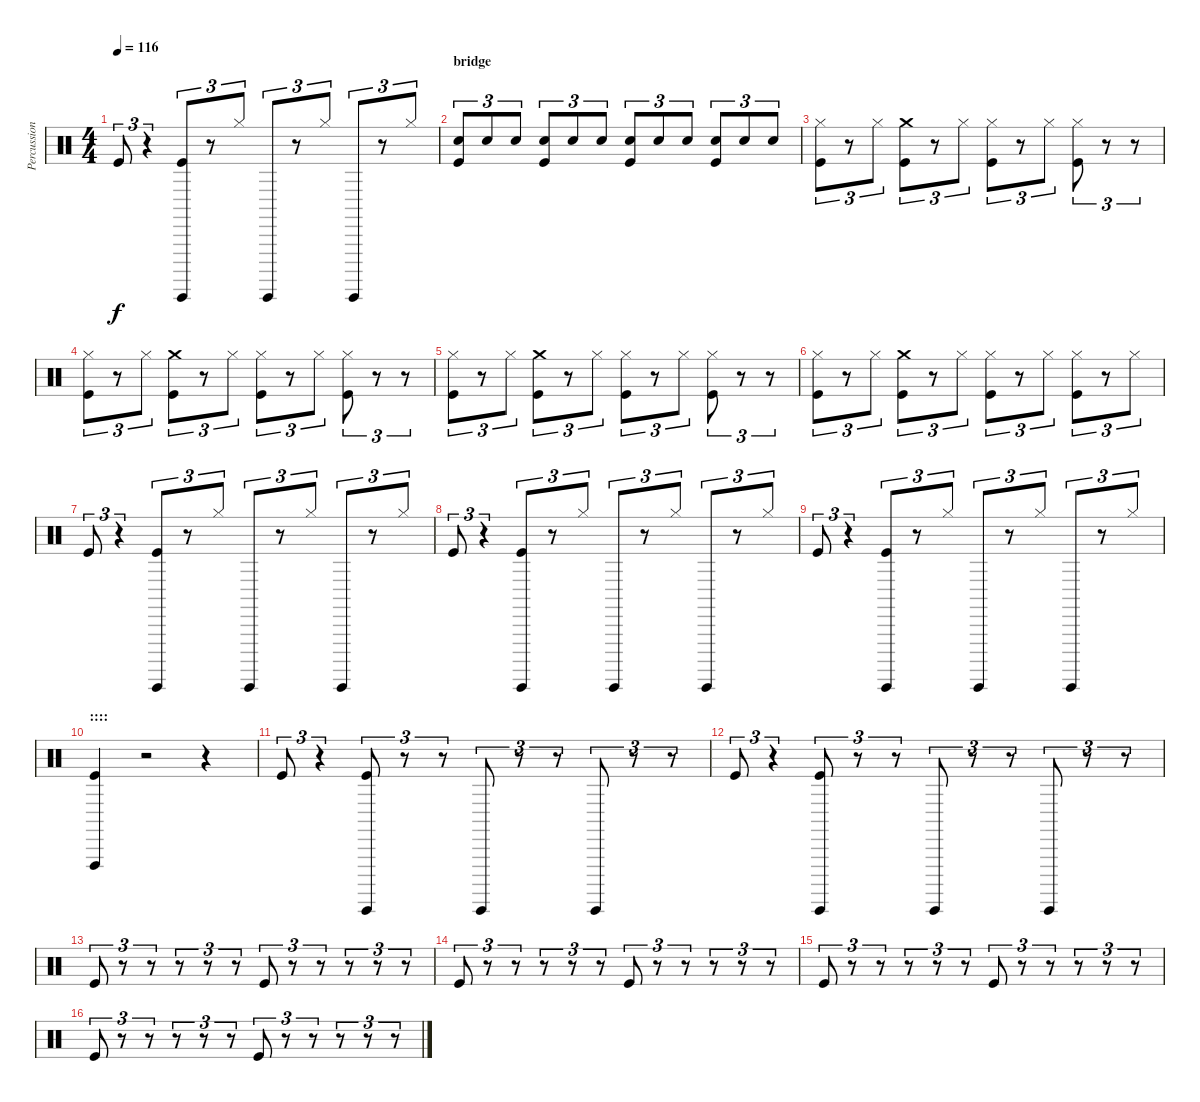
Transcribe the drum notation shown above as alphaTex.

\track ("Percussions" "Percussion") {instrument percussion}
\staff {score}
\articulation defaults
\ts (4 4)
\tempo 116
\clef neutral
\ks c "Kick (hit)".8{tu (3 2) dy f}
r.4{tu (3 2)} ("Guiro (hit)" "Kick (hit)").8{tu (3 2)} r.8{tu (3 2)} "Hi-Hat (closed)".8{tu (3 2)} "Guiro (hit)".8{tu (3 2)} r.8{tu (3 2)} "Hi-Hat (closed)".8{tu (3 2)} "Guiro (hit)".8{tu (3 2)} r.8{tu (3 2)} "Hi-Hat (closed)".8{tu (3 2)} |
\section ("" "bridge")
("Snare (hit) 2" "Kick (hit)").8{tu (3 2) volume 6} "Snare (hit) 2".8{tu (3 2)} "Snare (hit) 2".8{tu (3 2)} ("Snare (hit) 2" "Kick (hit)").8{tu (3 2)} "Snare (hit) 2".8{tu (3 2)} "Snare (hit) 2".8{tu (3 2)} ("Snare (hit) 2" "Kick (hit)").8{tu (3 2)} "Snare (hit) 2".8{tu (3 2)} "Snare (hit) 2".8{tu (3 2)} ("Snare (hit) 2" "Kick (hit)").8{tu (3 2)} "Snare (hit) 2".8{tu (3 2)} "Snare (hit) 2".8{tu (3 2) volume 13} |
("Hi-Hat (closed)" "Kick (hit)").8{tu (3 2) volume 14} r.8{tu (3 2)} "Hi-Hat (closed)".8{tu (3 2)} ("Crash medium (hit)" "Kick (hit)").8{tu (3 2)} r.8{tu (3 2)} "Hi-Hat (closed)".8{tu (3 2)} ("Hi-Hat (closed)" "Kick (hit)").8{tu (3 2)} r.8{tu (3 2)} "Hi-Hat (closed)".8{tu (3 2)} ("Hi-Hat (closed)" "Kick (hit)").8{tu (3 2)} r.8{tu (3 2)} r.8{tu (3 2)} |
("Hi-Hat (closed)" "Kick (hit)").8{tu (3 2) volume 14} r.8{tu (3 2)} "Hi-Hat (closed)".8{tu (3 2)} ("Crash medium (hit)" "Kick (hit)").8{tu (3 2)} r.8{tu (3 2)} "Hi-Hat (closed)".8{tu (3 2)} ("Hi-Hat (closed)" "Kick (hit)").8{tu (3 2)} r.8{tu (3 2)} "Hi-Hat (closed)".8{tu (3 2)} ("Hi-Hat (closed)" "Kick (hit)").8{tu (3 2)} r.8{tu (3 2)} r.8{tu (3 2)} |
("Hi-Hat (closed)" "Kick (hit)").8{tu (3 2) volume 14} r.8{tu (3 2)} "Hi-Hat (closed)".8{tu (3 2)} ("Crash medium (hit)" "Kick (hit)").8{tu (3 2)} r.8{tu (3 2)} "Hi-Hat (closed)".8{tu (3 2)} ("Hi-Hat (closed)" "Kick (hit)").8{tu (3 2)} r.8{tu (3 2)} "Hi-Hat (closed)".8{tu (3 2)} ("Hi-Hat (closed)" "Kick (hit)").8{tu (3 2)} r.8{tu (3 2)} r.8{tu (3 2)} |
("Hi-Hat (closed)" "Kick (hit)").8{tu (3 2) volume 14} r.8{tu (3 2)} "Hi-Hat (closed)".8{tu (3 2)} ("Crash medium (hit)" "Kick (hit)").8{tu (3 2)} r.8{tu (3 2)} "Hi-Hat (closed)".8{tu (3 2)} ("Hi-Hat (closed)" "Kick (hit)").8{tu (3 2)} r.8{tu (3 2)} "Hi-Hat (closed)".8{tu (3 2)} ("Hi-Hat (closed)" "Kick (hit)").8{tu (3 2)} r.8{tu (3 2)} "Hi-Hat (closed)".8{tu (3 2)} |
"Kick (hit)".8{tu (3 2)} r.4{tu (3 2)} ("Guiro (hit)" "Kick (hit)").8{tu (3 2)} r.8{tu (3 2)} "Hi-Hat (closed)".8{tu (3 2)} "Guiro (hit)".8{tu (3 2)} r.8{tu (3 2)} "Hi-Hat (closed)".8{tu (3 2)} "Guiro (hit)".8{tu (3 2)} r.8{tu (3 2)} "Hi-Hat (closed)".8{tu (3 2)} |
"Kick (hit)".8{tu (3 2)} r.4{tu (3 2)} ("Guiro (hit)" "Kick (hit)").8{tu (3 2)} r.8{tu (3 2)} "Hi-Hat (closed)".8{tu (3 2)} "Guiro (hit)".8{tu (3 2)} r.8{tu (3 2)} "Hi-Hat (closed)".8{tu (3 2)} "Guiro (hit)".8{tu (3 2)} r.8{tu (3 2)} "Hi-Hat (closed)".8{tu (3 2)} |
"Kick (hit)".8{tu (3 2)} r.4{tu (3 2)} ("Guiro (hit)" "Kick (hit)").8{tu (3 2)} r.8{tu (3 2)} "Hi-Hat (closed)".8{tu (3 2)} "Guiro (hit)".8{tu (3 2)} r.8{tu (3 2)} "Hi-Hat (closed)".8{tu (3 2)} "Guiro (hit)".8{tu (3 2)} r.8{tu (3 2)} "Hi-Hat (closed)".8{tu (3 2)} |
\section ("" "::::")
("Vibraslap (hit)" "Kick (hit)").4 r.2 r.4 |
"Kick (hit)".8{tu (3 2)} r.4{tu (3 2)} ("Guiro (hit)" "Kick (hit)").8{tu (3 2)} r.8{tu (3 2)} r.8{tu (3 2)} "Guiro (hit)".8{tu (3 2)} r.8{tu (3 2)} r.8{tu (3 2)} "Guiro (hit)".8{tu (3 2)} r.8{tu (3 2)} r.8{tu (3 2)} |
"Kick (hit)".8{tu (3 2)} r.4{tu (3 2)} ("Guiro (hit)" "Kick (hit)").8{tu (3 2)} r.8{tu (3 2)} r.8{tu (3 2)} "Guiro (hit)".8{tu (3 2)} r.8{tu (3 2)} r.8{tu (3 2)} "Guiro (hit)".8{tu (3 2)} r.8{tu (3 2)} r.8{tu (3 2)} |
"Kick (hit)".8{tu (3 2)} r.8{tu (3 2)} r.8{tu (3 2)} r.8{tu (3 2)} r.8{tu (3 2)} r.8{tu (3 2)} "Kick (hit)".8{tu (3 2)} r.8{tu (3 2)} r.8{tu (3 2)} r.8{tu (3 2)} r.8{tu (3 2)} r.8{tu (3 2)} |
"Kick (hit)".8{tu (3 2)} r.8{tu (3 2)} r.8{tu (3 2)} r.8{tu (3 2)} r.8{tu (3 2)} r.8{tu (3 2)} "Kick (hit)".8{tu (3 2)} r.8{tu (3 2)} r.8{tu (3 2)} r.8{tu (3 2)} r.8{tu (3 2)} r.8{tu (3 2)} |
"Kick (hit)".8{tu (3 2)} r.8{tu (3 2)} r.8{tu (3 2)} r.8{tu (3 2)} r.8{tu (3 2)} r.8{tu (3 2)} "Kick (hit)".8{tu (3 2)} r.8{tu (3 2)} r.8{tu (3 2)} r.8{tu (3 2)} r.8{tu (3 2)} r.8{tu (3 2)} |
"Kick (hit)".8{tu (3 2)} r.8{tu (3 2)} r.8{tu (3 2)} r.8{tu (3 2)} r.8{tu (3 2)} r.8{tu (3 2)} "Kick (hit)".8{tu (3 2)} r.8{tu (3 2)} r.8{tu (3 2)} r.8{tu (3 2)} r.8{tu (3 2)} r.8{tu (3 2)}
